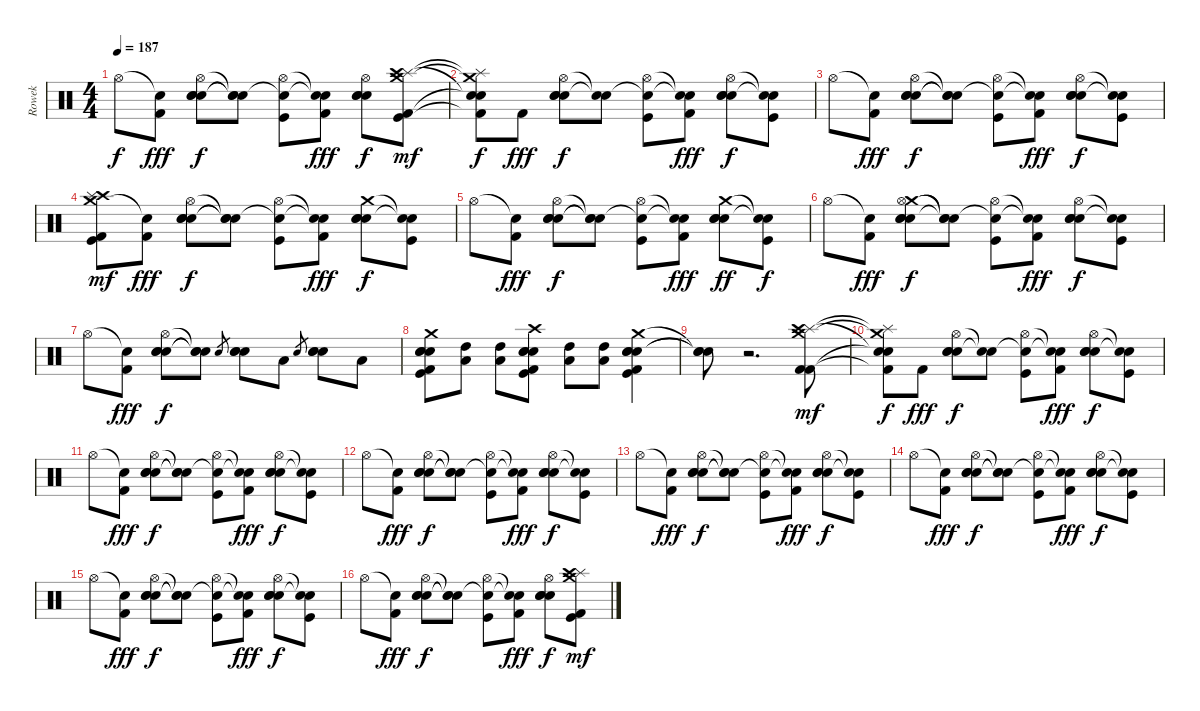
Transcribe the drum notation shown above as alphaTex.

\track ("Rowek" "Rowek") {instrument percussion}
\staff {score}
\articulation defaults
\ts (4 4)
\tempo 187
\clef neutral
\ks c "Hi-Hat (open)".8{dy f}
("Snare (hit)"{t} "Kick (hit) 2").8{dy fff} ("Hi-Hat (open)" "Electric Snare (hit)" "Electric Snare (hit)" "Electric Snare (hit)").8{dy f} ("Snare (hit)"{t} "Snare (hit)"{t} "Snare (hit)"{t}).8 ("Hi-Hat (open)" "Snare (hit)"{t} "Kick (hit)").8 ("Snare (hit)"{t} "Snare (hit)"{t} "Kick (hit) 2").8{dy fff} ("Hi-Hat (open)" "Electric Snare (hit)" "Electric Snare (hit)" "Electric Snare (hit)").8{dy f} ("Crash medium (hit)" "Splash (hit)" "Crash high (hit)" "Kick (hit) 2" "Kick (hit)").8{dy mf} |
("Crash medium (hit)"{t} "Splash (hit)"{t} "Snare (hit)"{t} "Snare (hit)"{t} "Kick (hit) 2"{t}).8{dy f} "Kick (hit) 2".8{dy fff} ("Hi-Hat (open)" "Electric Snare (hit)" "Electric Snare (hit)" "Electric Snare (hit)").8{dy f} ("Snare (hit)"{t} "Snare (hit)"{t}).8 ("Hi-Hat (open)" "Snare (hit)"{t} "Kick (hit)").8 ("Snare (hit)"{t} "Snare (hit)"{t} "Kick (hit) 2").8{dy fff} ("Hi-Hat (open)" "Electric Snare (hit)" "Electric Snare (hit)" "Electric Snare (hit)").8{dy f} ("Snare (hit)"{t} "Snare (hit)"{t} "Kick (hit)").8 |
"Hi-Hat (open)".8 ("Snare (hit)"{t} "Kick (hit) 2").8{dy fff} ("Hi-Hat (open)" "Electric Snare (hit)" "Electric Snare (hit)" "Electric Snare (hit)").8{dy f} ("Snare (hit)"{t} "Snare (hit)"{t} "Snare (hit)"{t}).8 ("Hi-Hat (open)" "Snare (hit)"{t} "Kick (hit)").8 ("Snare (hit)"{t} "Snare (hit)"{t} "Kick (hit) 2").8{dy fff} ("Hi-Hat (open)" "Electric Snare (hit)" "Electric Snare (hit)" "Electric Snare (hit)").8{dy f} ("Snare (hit)"{t} "Snare (hit)"{t} "Kick (hit)").8 |
("Crash medium (hit)" "Crash high (hit)" "Splash (hit)" "Kick (hit) 2" "Kick (hit)").8{dy mf} ("Snare (hit)"{t} "Kick (hit) 2").8{dy fff} ("Hi-Hat (open)" "Electric Snare (hit)" "Electric Snare (hit)" "Electric Snare (hit)").8{dy f} ("Snare (hit)"{t} "Snare (hit)"{t} "Snare (hit)"{t}).8 ("Hi-Hat (open)" "Snare (hit)"{t} "Kick (hit)").8 ("Snare (hit)"{t} "Snare (hit)"{t} "Kick (hit) 2").8{dy fff} ("Crash medium (hit)" "Electric Snare (hit)" "Electric Snare (hit)" "Electric Snare (hit)").8{dy f} ("Snare (hit)"{t} "Snare (hit)"{t} "Kick (hit)").8 |
"Hi-Hat (open)".8 ("Snare (hit)"{t} "Kick (hit) 2").8{dy fff} ("Hi-Hat (open)" "Electric Snare (hit)" "Electric Snare (hit)" "Electric Snare (hit)").8{dy f} ("Snare (hit)"{t} "Snare (hit)"{t} "Snare (hit)"{t}).8 ("Hi-Hat (open)" "Snare (hit)"{t} "Kick (hit)").8 ("Snare (hit)"{t} "Snare (hit)"{t} "Kick (hit) 2").8{dy fff} ("Crash medium (hit)" "Electric Snare (hit)" "Electric Snare (hit)" "Electric Snare (hit)").8{dy ff} ("Snare (hit)"{t} "Snare (hit)"{t} "Kick (hit)").8{dy f} |
"Hi-Hat (open)".8 ("Snare (hit)"{t} "Kick (hit) 2").8{dy fff} ("Crash medium (hit)" "Hi-Hat (open)" "Electric Snare (hit)" "Electric Snare (hit)" "Electric Snare (hit)").8{dy f} ("Snare (hit)"{t} "Snare (hit)"{t} "Snare (hit)"{t}).8 ("Hi-Hat (open)" "Snare (hit)"{t} "Kick (hit)").8 ("Snare (hit)"{t} "Snare (hit)"{t} "Kick (hit) 2").8{dy fff} ("Hi-Hat (open)" "Electric Snare (hit)" "Electric Snare (hit)" "Electric Snare (hit)").8{dy f} ("Snare (hit)"{t} "Snare (hit)"{t} "Kick (hit)").8 |
"Hi-Hat (open)".8 ("Snare (hit)"{t} "Kick (hit) 2").8{dy fff} ("Hi-Hat (open)" "Electric Snare (hit)" "Electric Snare (hit)" "Electric Snare (hit)").8{dy f} ("Snare (hit)"{t} "Snare (hit)"{t} "Snare (hit)"{t}).8 "Electric Snare (hit)".8{gr} ("Electric Snare (hit)" "Electric Snare (hit)" "Electric Snare (hit)").8 "Low Tom (hit)".8 "Electric Snare (hit)".8{gr} ("Electric Snare (hit)" "Electric Snare (hit)" "Electric Snare (hit)").8 "Low Tom (hit)".8 |
("Crash medium (hit)" "Electric Snare (hit)" "Electric Snare (hit)" "Electric Snare (hit)" "Kick (hit) 2" "Kick (hit)").8 ("Low Tom (hit)" "High Tom (hit)").8 ("Low Tom (hit)" "High Tom (hit)").8 ("Crash high (hit)" "Electric Snare (hit)" "Electric Snare (hit)" "Electric Snare (hit)" "Kick (hit)" "Kick (hit) 2").8 ("Low Tom (hit)" "High Tom (hit)").8 ("Low Tom (hit)" "High Tom (hit)").8 ("Crash medium (hit)" "Electric Snare (hit)" "Electric Snare (hit)" "Electric Snare (hit)" "Kick (hit) 2" "Kick (hit)").4 |
("Snare (hit)"{t} "Snare (hit)"{t} "Snare (hit)"{t}).8 r.2{d} ("Crash medium (hit)" "Splash (hit)" "Crash high (hit)" "Kick (hit) 2" "Kick (hit) 2").8{dy mf} |
("Crash medium (hit)"{t} "Splash (hit)"{t} "Snare (hit)"{t} "Snare (hit)"{t} "Kick (hit) 2"{t}).8{dy f} "Kick (hit) 2".8{dy fff} ("Hi-Hat (open)" "Electric Snare (hit)" "Electric Snare (hit)" "Electric Snare (hit)").8{dy f} ("Snare (hit)"{t} "Snare (hit)"{t}).8 ("Hi-Hat (open)" "Snare (hit)"{t} "Kick (hit)").8 ("Snare (hit)"{t} "Snare (hit)"{t} "Kick (hit) 2").8{dy fff} ("Hi-Hat (open)" "Electric Snare (hit)" "Electric Snare (hit)" "Electric Snare (hit)").8{dy f} ("Snare (hit)"{t} "Snare (hit)"{t} "Kick (hit)").8 |
"Hi-Hat (open)".8 ("Snare (hit)"{t} "Kick (hit) 2").8{dy fff} ("Hi-Hat (open)" "Electric Snare (hit)" "Electric Snare (hit)" "Electric Snare (hit)").8{dy f} ("Snare (hit)"{t} "Snare (hit)"{t} "Snare (hit)"{t}).8 ("Hi-Hat (open)" "Snare (hit)"{t} "Kick (hit)").8 ("Snare (hit)"{t} "Snare (hit)"{t} "Kick (hit) 2").8{dy fff} ("Hi-Hat (open)" "Electric Snare (hit)" "Electric Snare (hit)" "Electric Snare (hit)").8{dy f} ("Snare (hit)"{t} "Snare (hit)"{t} "Kick (hit)").8 |
"Hi-Hat (open)".8 ("Snare (hit)"{t} "Kick (hit) 2").8{dy fff} ("Hi-Hat (open)" "Electric Snare (hit)" "Electric Snare (hit)" "Electric Snare (hit)").8{dy f} ("Snare (hit)"{t} "Snare (hit)"{t} "Snare (hit)"{t}).8 ("Hi-Hat (open)" "Snare (hit)"{t} "Kick (hit)").8 ("Snare (hit)"{t} "Snare (hit)"{t} "Kick (hit) 2").8{dy fff} ("Hi-Hat (open)" "Electric Snare (hit)" "Electric Snare (hit)" "Electric Snare (hit)").8{dy f} ("Snare (hit)"{t} "Snare (hit)"{t} "Kick (hit)").8 |
"Hi-Hat (open)".8 ("Snare (hit)"{t} "Kick (hit) 2").8{dy fff} ("Hi-Hat (open)" "Electric Snare (hit)" "Electric Snare (hit)" "Electric Snare (hit)").8{dy f} ("Snare (hit)"{t} "Snare (hit)"{t} "Snare (hit)"{t}).8 ("Hi-Hat (open)" "Snare (hit)"{t} "Kick (hit)").8 ("Snare (hit)"{t} "Snare (hit)"{t} "Kick (hit) 2").8{dy fff} ("Hi-Hat (open)" "Electric Snare (hit)" "Electric Snare (hit)" "Electric Snare (hit)").8{dy f} ("Snare (hit)"{t} "Snare (hit)"{t} "Kick (hit)").8 |
"Hi-Hat (open)".8 ("Snare (hit)"{t} "Kick (hit) 2").8{dy fff} ("Hi-Hat (open)" "Electric Snare (hit)" "Electric Snare (hit)" "Electric Snare (hit)").8{dy f} ("Snare (hit)"{t} "Snare (hit)"{t} "Snare (hit)"{t}).8 ("Hi-Hat (open)" "Snare (hit)"{t} "Kick (hit)").8 ("Snare (hit)"{t} "Snare (hit)"{t} "Kick (hit) 2").8{dy fff} ("Hi-Hat (open)" "Electric Snare (hit)" "Electric Snare (hit)" "Electric Snare (hit)").8{dy f} ("Snare (hit)"{t} "Snare (hit)"{t} "Kick (hit)").8 |
"Hi-Hat (open)".8 ("Snare (hit)"{t} "Kick (hit) 2").8{dy fff} ("Hi-Hat (open)" "Electric Snare (hit)" "Electric Snare (hit)" "Electric Snare (hit)").8{dy f} ("Snare (hit)"{t} "Snare (hit)"{t} "Snare (hit)"{t}).8 ("Hi-Hat (open)" "Snare (hit)"{t} "Kick (hit)").8 ("Snare (hit)"{t} "Snare (hit)"{t} "Kick (hit) 2").8{dy fff} ("Hi-Hat (open)" "Electric Snare (hit)" "Electric Snare (hit)" "Electric Snare (hit)").8{dy f} ("Snare (hit)"{t} "Snare (hit)"{t} "Kick (hit)").8 |
"Hi-Hat (open)".8 ("Snare (hit)"{t} "Kick (hit) 2").8{dy fff} ("Hi-Hat (open)" "Electric Snare (hit)" "Electric Snare (hit)" "Electric Snare (hit)").8{dy f} ("Snare (hit)"{t} "Snare (hit)"{t} "Snare (hit)"{t}).8 ("Hi-Hat (open)" "Snare (hit)"{t} "Kick (hit)").8 ("Snare (hit)"{t} "Snare (hit)"{t} "Kick (hit) 2").8{dy fff} ("Hi-Hat (open)" "Electric Snare (hit)" "Electric Snare (hit)" "Electric Snare (hit)").8{dy f} ("Crash medium (hit)" "Splash (hit)" "Crash high (hit)" "Kick (hit) 2" "Kick (hit)").8{dy mf}
